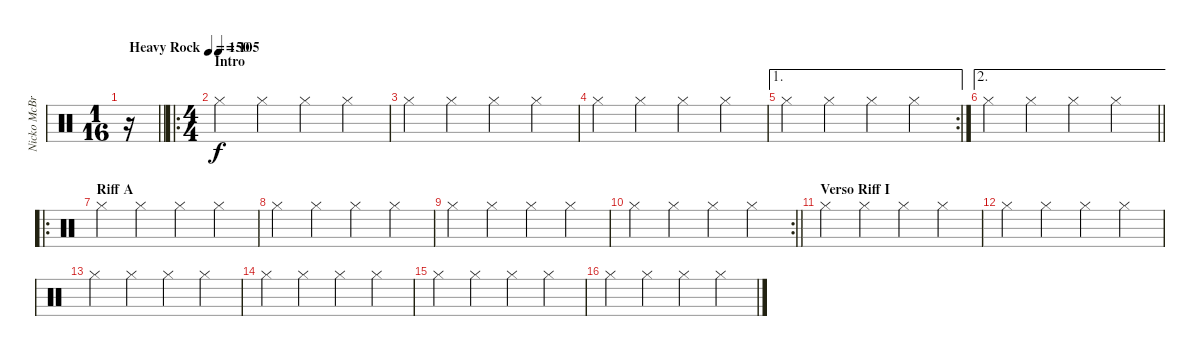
\track ("Nicko McBrain" "Nicko McBr") {instrument percussion}
\staff {score}
\articulation defaults
\ts (1 16)
\tempo (150 "Heavy Rock")
\clef neutral
\barLineRight lightlight
\ks c
r.16{dy f} |
\ro
\ts (4 4)
\section ("" "Intro")
\tempo (105)
"Hi-Hat (closed)".4 "Hi-Hat (closed)".4 "Hi-Hat (closed)".4 "Hi-Hat (closed)".4 |
"Hi-Hat (closed)".4 "Hi-Hat (closed)".4 "Hi-Hat (closed)".4 "Hi-Hat (closed)".4 |
"Hi-Hat (closed)".4 "Hi-Hat (closed)".4 "Hi-Hat (closed)".4 "Hi-Hat (closed)".4 |
\ae 1
\rc 2 "Hi-Hat (closed)".4 "Hi-Hat (closed)".4 "Hi-Hat (closed)".4 "Hi-Hat (closed)".4
|
\ae 2
\barLineRight lightlight "Hi-Hat (closed)".4 "Hi-Hat (closed)".4 "Hi-Hat (closed)".4 "Hi-Hat (closed)".4
|
\ro
\section ("" "Riff A")
"Hi-Hat (closed)".4 "Hi-Hat (closed)".4 "Hi-Hat (closed)".4 "Hi-Hat (closed)".4 |
"Hi-Hat (closed)".4 "Hi-Hat (closed)".4 "Hi-Hat (closed)".4 "Hi-Hat (closed)".4 |
"Hi-Hat (closed)".4 "Hi-Hat (closed)".4 "Hi-Hat (closed)".4 "Hi-Hat (closed)".4 |
\rc 2
\barLineRight lightlight "Hi-Hat (closed)".4 "Hi-Hat (closed)".4 "Hi-Hat (closed)".4 "Hi-Hat (closed)".4
|
\section ("" "Verso Riff I")
"Hi-Hat (closed)".4 "Hi-Hat (closed)".4 "Hi-Hat (closed)".4 "Hi-Hat (closed)".4 |
"Hi-Hat (closed)".4 "Hi-Hat (closed)".4 "Hi-Hat (closed)".4 "Hi-Hat (closed)".4 |
"Hi-Hat (closed)".4 "Hi-Hat (closed)".4 "Hi-Hat (closed)".4 "Hi-Hat (closed)".4 |
"Hi-Hat (closed)".4 "Hi-Hat (closed)".4 "Hi-Hat (closed)".4 "Hi-Hat (closed)".4 |
"Hi-Hat (closed)".4 "Hi-Hat (closed)".4 "Hi-Hat (closed)".4 "Hi-Hat (closed)".4 |
"Hi-Hat (closed)".4 "Hi-Hat (closed)".4 "Hi-Hat (closed)".4 "Hi-Hat (closed)".4
